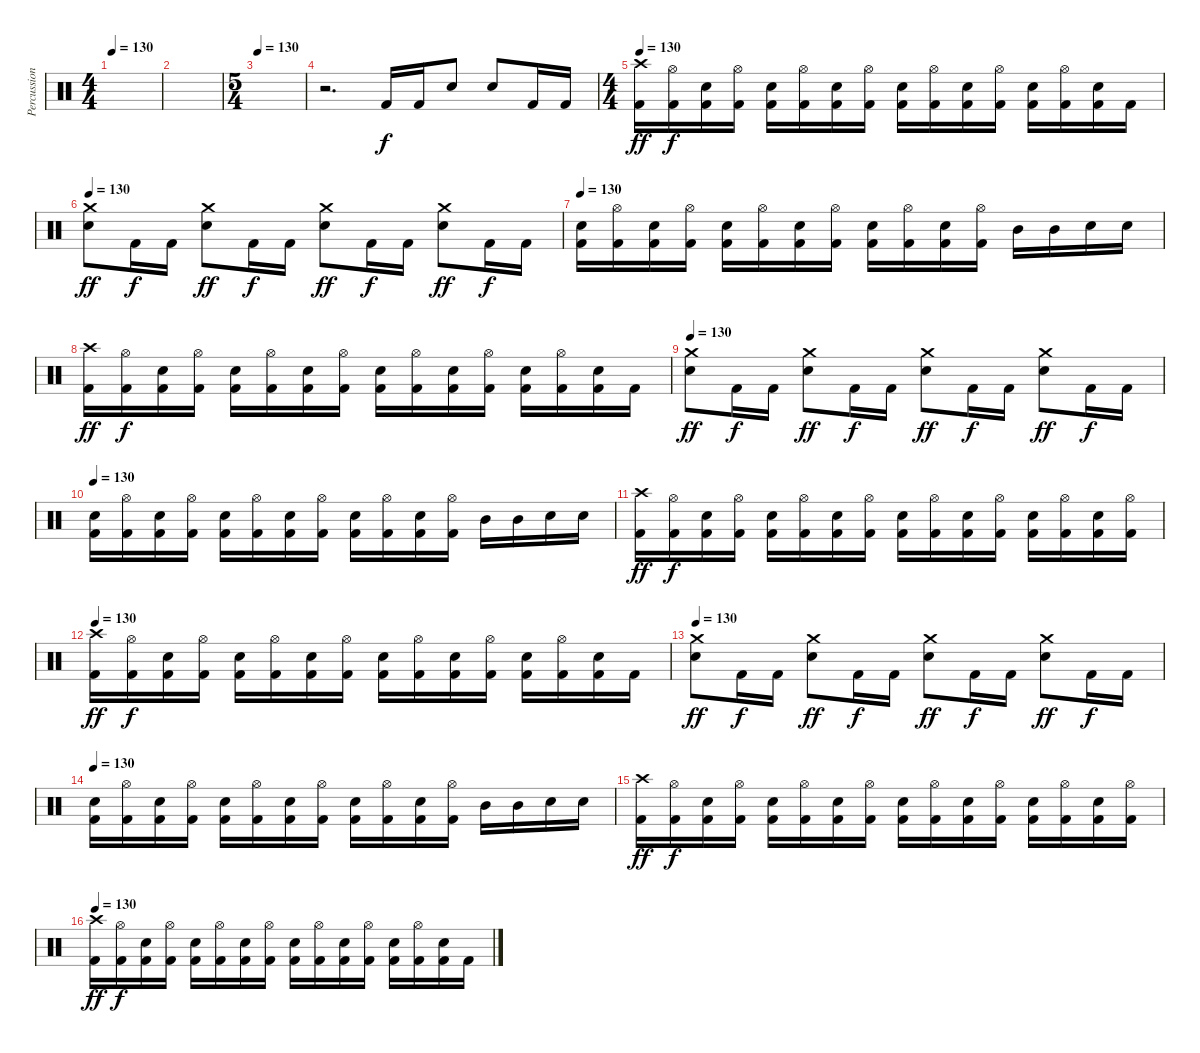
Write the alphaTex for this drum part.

\track ("Percussion" "Percussion") {instrument percussion}
\staff {score}
\articulation defaults
\ts (4 4)
\tempo 130
\clef neutral
\ks c
|
|
\ts (5 4)
\tempo 140
\tempo 130
|
r.2{d} "Kick (hit) 2".16{dy f} "Kick (hit) 2".16 "Electric Snare (hit)".8 "Electric Snare (hit)".8 "Kick (hit) 2".16 "Kick (hit) 2".16 |
\ts (4 4)
\tempo 130
("Crash high (hit)" "Kick (hit) 2").16{dy ff} ("Hi-Hat (open)" "Kick (hit) 2").16{dy f} ("Electric Snare (hit)" "Kick (hit) 2").16 ("Hi-Hat (open)" "Kick (hit) 2").16 ("Electric Snare (hit)" "Kick (hit) 2").16 ("Hi-Hat (open)" "Kick (hit) 2").16 ("Electric Snare (hit)" "Kick (hit) 2").16 ("Hi-Hat (open)" "Kick (hit) 2").16 ("Electric Snare (hit)" "Kick (hit) 2").16 ("Hi-Hat (open)" "Kick (hit) 2").16 ("Electric Snare (hit)" "Kick (hit) 2").16 ("Hi-Hat (open)" "Kick (hit) 2").16 ("Electric Snare (hit)" "Kick (hit) 2").16 ("Hi-Hat (open)" "Kick (hit) 2").16 ("Electric Snare (hit)" "Kick (hit) 2").16 "Kick (hit) 2".16 |
\tempo 130
("Crash medium (hit)" "Electric Snare (hit)").8{dy ff} "Kick (hit) 2".16{dy f} "Kick (hit) 2".16 ("Crash medium (hit)" "Electric Snare (hit)").8{dy ff} "Kick (hit) 2".16{dy f} "Kick (hit) 2".16 ("Crash medium (hit)" "Electric Snare (hit)").8{dy ff} "Kick (hit) 2".16{dy f} "Kick (hit) 2".16 ("Crash medium (hit)" "Electric Snare (hit)").8{dy ff} "Kick (hit) 2".16{dy f} "Kick (hit) 2".16 |
\tempo 130
("Electric Snare (hit)" "Kick (hit) 2").16 ("Hi-Hat (open)" "Kick (hit) 2").16 ("Electric Snare (hit)" "Kick (hit) 2").16 ("Hi-Hat (open)" "Kick (hit) 2").16 ("Electric Snare (hit)" "Kick (hit) 2").16 ("Hi-Hat (open)" "Kick (hit) 2").16 ("Electric Snare (hit)" "Kick (hit) 2").16 ("Hi-Hat (open)" "Kick (hit) 2").16 ("Electric Snare (hit)" "Kick (hit) 2").16 ("Hi-Hat (open)" "Kick (hit) 2").16 ("Electric Snare (hit)" "Kick (hit) 2").16 ("Hi-Hat (open)" "Kick (hit) 2").16 "Mid Tom (hit)".16 "Mid Tom (hit)".16 "Electric Snare (hit)".16 "Electric Snare (hit)".16 |
("Crash high (hit)" "Kick (hit) 2").16{dy ff} ("Hi-Hat (open)" "Kick (hit) 2").16{dy f} ("Electric Snare (hit)" "Kick (hit) 2").16 ("Hi-Hat (open)" "Kick (hit) 2").16 ("Electric Snare (hit)" "Kick (hit) 2").16 ("Hi-Hat (open)" "Kick (hit) 2").16 ("Electric Snare (hit)" "Kick (hit) 2").16 ("Hi-Hat (open)" "Kick (hit) 2").16 ("Electric Snare (hit)" "Kick (hit) 2").16 ("Hi-Hat (open)" "Kick (hit) 2").16 ("Electric Snare (hit)" "Kick (hit) 2").16 ("Hi-Hat (open)" "Kick (hit) 2").16 ("Electric Snare (hit)" "Kick (hit) 2").16 ("Hi-Hat (open)" "Kick (hit) 2").16 ("Electric Snare (hit)" "Kick (hit) 2").16 "Kick (hit) 2".16 |
\tempo 130
("Crash medium (hit)" "Electric Snare (hit)").8{dy ff} "Kick (hit) 2".16{dy f} "Kick (hit) 2".16 ("Crash medium (hit)" "Electric Snare (hit)").8{dy ff} "Kick (hit) 2".16{dy f} "Kick (hit) 2".16 ("Crash medium (hit)" "Electric Snare (hit)").8{dy ff} "Kick (hit) 2".16{dy f} "Kick (hit) 2".16 ("Crash medium (hit)" "Electric Snare (hit)").8{dy ff} "Kick (hit) 2".16{dy f} "Kick (hit) 2".16 |
\tempo 130
("Electric Snare (hit)" "Kick (hit) 2").16 ("Hi-Hat (open)" "Kick (hit) 2").16 ("Electric Snare (hit)" "Kick (hit) 2").16 ("Hi-Hat (open)" "Kick (hit) 2").16 ("Electric Snare (hit)" "Kick (hit) 2").16 ("Hi-Hat (open)" "Kick (hit) 2").16 ("Electric Snare (hit)" "Kick (hit) 2").16 ("Hi-Hat (open)" "Kick (hit) 2").16 ("Electric Snare (hit)" "Kick (hit) 2").16 ("Hi-Hat (open)" "Kick (hit) 2").16 ("Electric Snare (hit)" "Kick (hit) 2").16 ("Hi-Hat (open)" "Kick (hit) 2").16 "Mid Tom (hit)".16 "Mid Tom (hit)".16 "Electric Snare (hit)".16 "Electric Snare (hit)".16 |
("Crash high (hit)" "Kick (hit) 2").16{dy ff} ("Hi-Hat (open)" "Kick (hit) 2").16{dy f} ("Electric Snare (hit)" "Kick (hit) 2").16 ("Hi-Hat (open)" "Kick (hit) 2").16 ("Electric Snare (hit)" "Kick (hit) 2").16 ("Hi-Hat (open)" "Kick (hit) 2").16 ("Electric Snare (hit)" "Kick (hit) 2").16 ("Hi-Hat (open)" "Kick (hit) 2").16 ("Electric Snare (hit)" "Kick (hit) 2").16 ("Hi-Hat (open)" "Kick (hit) 2").16 ("Electric Snare (hit)" "Kick (hit) 2").16 ("Hi-Hat (open)" "Kick (hit) 2").16 ("Electric Snare (hit)" "Kick (hit) 2").16 ("Hi-Hat (open)" "Kick (hit) 2").16 ("Electric Snare (hit)" "Kick (hit) 2").16 ("Hi-Hat (open)" "Kick (hit) 2").16 |
\tempo 130
("Crash high (hit)" "Kick (hit) 2").16{dy ff} ("Hi-Hat (open)" "Kick (hit) 2").16{dy f} ("Electric Snare (hit)" "Kick (hit) 2").16 ("Hi-Hat (open)" "Kick (hit) 2").16 ("Electric Snare (hit)" "Kick (hit) 2").16 ("Hi-Hat (open)" "Kick (hit) 2").16 ("Electric Snare (hit)" "Kick (hit) 2").16 ("Hi-Hat (open)" "Kick (hit) 2").16 ("Electric Snare (hit)" "Kick (hit) 2").16 ("Hi-Hat (open)" "Kick (hit) 2").16 ("Electric Snare (hit)" "Kick (hit) 2").16 ("Hi-Hat (open)" "Kick (hit) 2").16 ("Electric Snare (hit)" "Kick (hit) 2").16 ("Hi-Hat (open)" "Kick (hit) 2").16 ("Electric Snare (hit)" "Kick (hit) 2").16 "Kick (hit) 2".16 |
\tempo 130
("Crash medium (hit)" "Electric Snare (hit)").8{dy ff} "Kick (hit) 2".16{dy f} "Kick (hit) 2".16 ("Crash medium (hit)" "Electric Snare (hit)").8{dy ff} "Kick (hit) 2".16{dy f} "Kick (hit) 2".16 ("Crash medium (hit)" "Electric Snare (hit)").8{dy ff} "Kick (hit) 2".16{dy f} "Kick (hit) 2".16 ("Crash medium (hit)" "Electric Snare (hit)").8{dy ff} "Kick (hit) 2".16{dy f} "Kick (hit) 2".16 |
\tempo 130
("Electric Snare (hit)" "Kick (hit) 2").16 ("Hi-Hat (open)" "Kick (hit) 2").16 ("Electric Snare (hit)" "Kick (hit) 2").16 ("Hi-Hat (open)" "Kick (hit) 2").16 ("Electric Snare (hit)" "Kick (hit) 2").16 ("Hi-Hat (open)" "Kick (hit) 2").16 ("Electric Snare (hit)" "Kick (hit) 2").16 ("Hi-Hat (open)" "Kick (hit) 2").16 ("Electric Snare (hit)" "Kick (hit) 2").16 ("Hi-Hat (open)" "Kick (hit) 2").16 ("Electric Snare (hit)" "Kick (hit) 2").16 ("Hi-Hat (open)" "Kick (hit) 2").16 "Mid Tom (hit)".16 "Mid Tom (hit)".16 "Electric Snare (hit)".16 "Electric Snare (hit)".16 |
("Crash high (hit)" "Kick (hit) 2").16{dy ff} ("Hi-Hat (open)" "Kick (hit) 2").16{dy f} ("Electric Snare (hit)" "Kick (hit) 2").16 ("Hi-Hat (open)" "Kick (hit) 2").16 ("Electric Snare (hit)" "Kick (hit) 2").16 ("Hi-Hat (open)" "Kick (hit) 2").16 ("Electric Snare (hit)" "Kick (hit) 2").16 ("Hi-Hat (open)" "Kick (hit) 2").16 ("Electric Snare (hit)" "Kick (hit) 2").16 ("Hi-Hat (open)" "Kick (hit) 2").16 ("Electric Snare (hit)" "Kick (hit) 2").16 ("Hi-Hat (open)" "Kick (hit) 2").16 ("Electric Snare (hit)" "Kick (hit) 2").16 ("Hi-Hat (open)" "Kick (hit) 2").16 ("Electric Snare (hit)" "Kick (hit) 2").16 ("Hi-Hat (open)" "Kick (hit) 2").16 |
\tempo 130
("Crash high (hit)" "Kick (hit) 2").16{dy ff} ("Hi-Hat (open)" "Kick (hit) 2").16{dy f} ("Electric Snare (hit)" "Kick (hit) 2").16 ("Hi-Hat (open)" "Kick (hit) 2").16 ("Electric Snare (hit)" "Kick (hit) 2").16 ("Hi-Hat (open)" "Kick (hit) 2").16 ("Electric Snare (hit)" "Kick (hit) 2").16 ("Hi-Hat (open)" "Kick (hit) 2").16 ("Electric Snare (hit)" "Kick (hit) 2").16 ("Hi-Hat (open)" "Kick (hit) 2").16 ("Electric Snare (hit)" "Kick (hit) 2").16 ("Hi-Hat (open)" "Kick (hit) 2").16 ("Electric Snare (hit)" "Kick (hit) 2").16 ("Hi-Hat (open)" "Kick (hit) 2").16 ("Electric Snare (hit)" "Kick (hit) 2").16 "Kick (hit) 2".16
